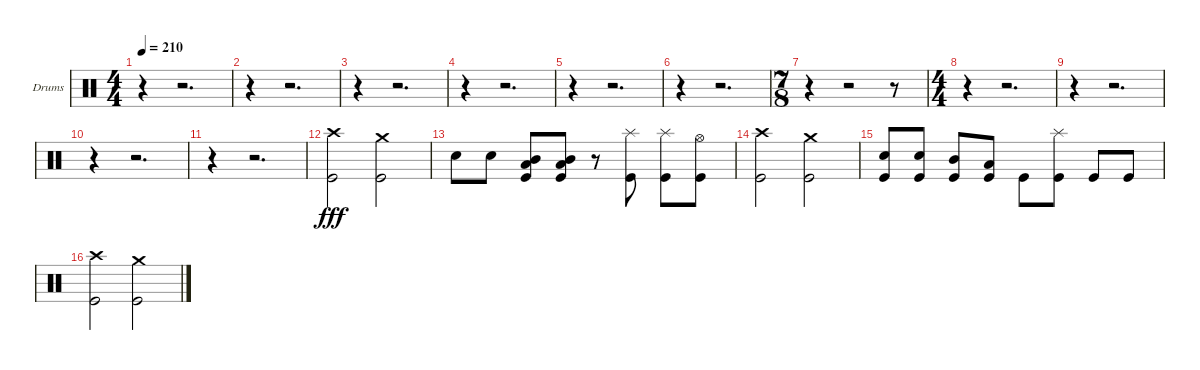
\bracketExtendMode groupsimilarinstruments
\firstSystemTrackNameOrientation horizontal
\otherSystemsTrackNameOrientation horizontal
\track ("Drumkit" "Drums") {instrument percussion}
\staff {score}
\articulation defaults
\ts (4 4)
\tempo 210
\clef neutral
\ks c
r.4{dy fff} r.2{d} |
r.4 r.2{d} |
r.4 r.2{d} |
r.4 r.2{d} |
r.4 r.2{d} |
r.4 r.2{d} |
\ts (7 8)
\beaming (8 2 2 2 2)
r.4 r.2 r.8 |
\ts (4 4)
\beaming (8 2 2 2 2)
r.4 r.2{d} |
r.4 r.2{d} |
r.4 r.2{d} |
r.4 r.2{d} |
("Crash high (hit)" "Kick (hit)").2 ("Crash medium (hit)" "Kick (hit)").2 |
"Snare (hit) 2".8 "Snare (hit) 2".8 ("Mid Tom (hit)" "Low Tom (hit)" "Kick (hit)").8 ("Mid Tom (hit)" "Low Tom (hit)" "Kick (hit)").8 r.8 ("Splash (hit)" "Kick (hit)").8 ("Splash (hit)" "Kick (hit)").8 ("Hi-Hat (open)" "Kick (hit)").8 |
("Crash high (hit)" "Kick (hit)").2 ("Crash medium (hit)" "Kick (hit)").2 |
("Snare (hit) 2" "Kick (hit)").8 ("Snare (hit) 2" "Kick (hit)").8 ("Mid Tom (hit)" "Kick (hit)").8 ("Low Tom (hit)" "Kick (hit)").8 "Kick (hit)".8 ("Splash (hit)" "Kick (hit)").8 "Kick (hit)".8 "Kick (hit)".8 |
("Crash high (hit)" "Kick (hit)").2 ("Crash medium (hit)" "Kick (hit)").2
